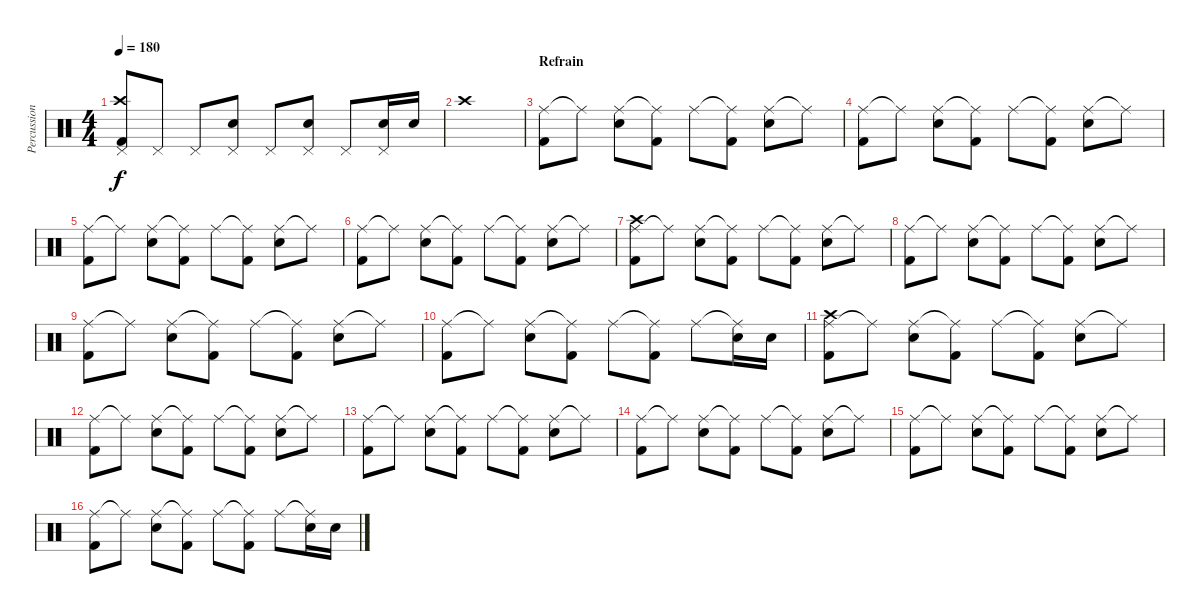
\track ("Percussions" "Percussion") {instrument percussion}
\staff {score}
\articulation defaults
\ts (4 4)
\tempo 180
\clef neutral
\ks c
("Pedal Hi-Hat (hit)" "Crash high (hit)" "Kick (hit) 2").8{dy f} "Pedal Hi-Hat (hit)".8 "Pedal Hi-Hat (hit)".8 ("Pedal Hi-Hat (hit)" "Electric Snare (hit)").8 "Pedal Hi-Hat (hit)".8 ("Pedal Hi-Hat (hit)" "Electric Snare (hit)").8 "Pedal Hi-Hat (hit)".8 ("Pedal Hi-Hat (hit)" "Electric Snare (hit)").16 "Electric Snare (hit)".16 |
"Crash high (hit)".1 |
\section ("" "Refrain")
("Ride (middle)" "Kick (hit) 2").8 "Ride (middle)"{t}.8 ("Ride (middle)" "Electric Snare (hit)").8 ("Ride (middle)"{t} "Kick (hit) 2").8 "Ride (middle)".8 ("Ride (middle)"{t} "Kick (hit) 2").8 ("Ride (middle)" "Electric Snare (hit)").8 "Ride (middle)"{t}.8 |
("Ride (middle)" "Kick (hit) 2").8 "Ride (middle)"{t}.8 ("Ride (middle)" "Electric Snare (hit)").8 ("Ride (middle)"{t} "Kick (hit) 2").8 "Ride (middle)".8 ("Ride (middle)"{t} "Kick (hit) 2").8 ("Ride (middle)" "Electric Snare (hit)").8 "Ride (middle)"{t}.8 |
("Ride (middle)" "Kick (hit) 2").8 "Ride (middle)"{t}.8 ("Ride (middle)" "Electric Snare (hit)").8 ("Ride (middle)"{t} "Kick (hit) 2").8 "Ride (middle)".8 ("Ride (middle)"{t} "Kick (hit) 2").8 ("Ride (middle)" "Electric Snare (hit)").8 "Ride (middle)"{t}.8 |
("Ride (middle)" "Kick (hit) 2").8 "Ride (middle)"{t}.8 ("Ride (middle)" "Electric Snare (hit)").8 ("Ride (middle)"{t} "Kick (hit) 2").8 "Ride (middle)".8 ("Ride (middle)"{t} "Kick (hit) 2").8 ("Ride (middle)" "Electric Snare (hit)").8 "Ride (middle)"{t}.8 |
("Ride (middle)" "Crash high (hit)" "Kick (hit) 2").8 "Ride (middle)"{t}.8 ("Ride (middle)" "Electric Snare (hit)").8 ("Ride (middle)"{t} "Kick (hit) 2").8 "Ride (middle)".8 ("Ride (middle)"{t} "Kick (hit) 2").8 ("Ride (middle)" "Electric Snare (hit)").8 "Ride (middle)"{t}.8 |
("Ride (middle)" "Kick (hit) 2").8 "Ride (middle)"{t}.8 ("Ride (middle)" "Electric Snare (hit)").8 ("Ride (middle)"{t} "Kick (hit) 2").8 "Ride (middle)".8 ("Ride (middle)"{t} "Kick (hit) 2").8 ("Ride (middle)" "Electric Snare (hit)").8 "Ride (middle)"{t}.8 |
("Ride (middle)" "Kick (hit) 2").8 "Ride (middle)"{t}.8 ("Ride (middle)" "Electric Snare (hit)").8 ("Ride (middle)"{t} "Kick (hit) 2").8 "Ride (middle)".8 ("Ride (middle)"{t} "Kick (hit) 2").8 ("Ride (middle)" "Electric Snare (hit)").8 "Ride (middle)"{t}.8 |
("Ride (middle)" "Kick (hit) 2").8 "Ride (middle)"{t}.8 ("Ride (middle)" "Electric Snare (hit)").8 ("Ride (middle)"{t} "Kick (hit) 2").8 "Ride (middle)".8 ("Ride (middle)"{t} "Kick (hit) 2").8 "Ride (middle)".8 ("Ride (middle)"{t} "Electric Snare (hit)").16 "Electric Snare (hit)".16 |
("Ride (middle)" "Crash high (hit)" "Kick (hit) 2").8 "Ride (middle)"{t}.8 ("Ride (middle)" "Electric Snare (hit)").8 ("Ride (middle)"{t} "Kick (hit) 2").8 "Ride (middle)".8 ("Ride (middle)"{t} "Kick (hit) 2").8 ("Ride (middle)" "Electric Snare (hit)").8 "Ride (middle)"{t}.8 |
("Ride (middle)" "Kick (hit) 2").8 "Ride (middle)"{t}.8 ("Ride (middle)" "Electric Snare (hit)").8 ("Ride (middle)"{t} "Kick (hit) 2").8 "Ride (middle)".8 ("Ride (middle)"{t} "Kick (hit) 2").8 ("Ride (middle)" "Electric Snare (hit)").8 "Ride (middle)"{t}.8 |
("Ride (middle)" "Kick (hit) 2").8 "Ride (middle)"{t}.8 ("Ride (middle)" "Electric Snare (hit)").8 ("Ride (middle)"{t} "Kick (hit) 2").8 "Ride (middle)".8 ("Ride (middle)"{t} "Kick (hit) 2").8 ("Ride (middle)" "Electric Snare (hit)").8 "Ride (middle)"{t}.8 |
("Ride (middle)" "Kick (hit) 2").8 "Ride (middle)"{t}.8 ("Ride (middle)" "Electric Snare (hit)").8 ("Ride (middle)"{t} "Kick (hit) 2").8 "Ride (middle)".8 ("Ride (middle)"{t} "Kick (hit) 2").8 ("Ride (middle)" "Electric Snare (hit)").8 "Ride (middle)"{t}.8 |
("Ride (middle)" "Kick (hit) 2").8 "Ride (middle)"{t}.8 ("Ride (middle)" "Electric Snare (hit)").8 ("Ride (middle)"{t} "Kick (hit) 2").8 "Ride (middle)".8 ("Ride (middle)"{t} "Kick (hit) 2").8 ("Ride (middle)" "Electric Snare (hit)").8 "Ride (middle)"{t}.8 |
("Ride (middle)" "Kick (hit) 2").8 "Ride (middle)"{t}.8 ("Ride (middle)" "Electric Snare (hit)").8 ("Ride (middle)"{t} "Kick (hit) 2").8 "Ride (middle)".8 ("Ride (middle)"{t} "Kick (hit) 2").8 "Ride (middle)".8 ("Ride (middle)"{t} "Electric Snare (hit)").16 "Electric Snare (hit)".16
